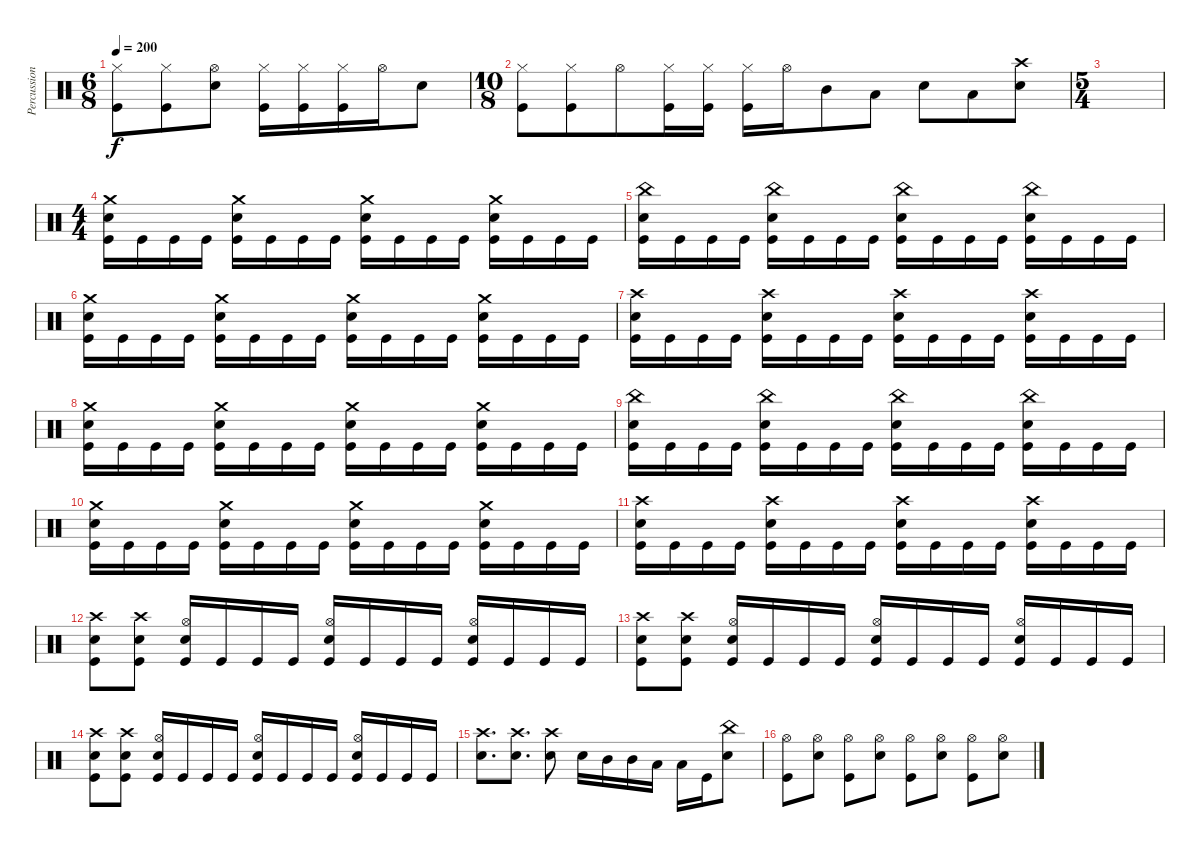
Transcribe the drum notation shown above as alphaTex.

\track ("Percussion" "Percussion") {instrument percussion}
\staff {score}
\articulation defaults
\ts (6 8)
\tempo 200
\clef neutral
\ks c
("Hi-Hat (closed)" "Kick (hit)").8{dy f} ("Hi-Hat (closed)" "Kick (hit)").8 ("Hi-Hat (open)" "Electric Snare (hit)").8 ("Hi-Hat (closed)" "Kick (hit)").16 ("Hi-Hat (closed)" "Kick (hit)").16 ("Hi-Hat (closed)" "Kick (hit)").16 "Hi-Hat (open)".16 "Electric Snare (hit)".8 |
\ts (10 8)
("Hi-Hat (closed)" "Kick (hit)").8 ("Hi-Hat (closed)" "Kick (hit)").8 "Hi-Hat (open)".8 ("Hi-Hat (closed)" "Kick (hit)").16 ("Hi-Hat (closed)" "Kick (hit)").16 ("Hi-Hat (closed)" "Kick (hit)").16 "Hi-Hat (open)".16 "Mid Tom (hit)".8 "Low Tom (hit)".8 "Electric Snare (hit)".8 "Low Tom (hit)".8 ("Crash high (hit)" "Electric Snare (hit)").8 |
\ts (5 4)
|
\ts (4 4)
("Crash medium (hit)" "Electric Snare (hit)" "Kick (hit)").16 "Kick (hit)".16 "Kick (hit)".16 "Kick (hit)".16 ("Crash medium (hit)" "Electric Snare (hit)" "Kick (hit)").16 "Kick (hit)".16 "Kick (hit)".16 "Kick (hit)".16 ("Crash medium (hit)" "Electric Snare (hit)" "Kick (hit)").16 "Kick (hit)".16 "Kick (hit)".16 "Kick (hit)".16 ("Crash medium (hit)" "Electric Snare (hit)" "Kick (hit)").16 "Kick (hit)".16 "Kick (hit)".16 "Kick (hit)".16 |
("China (hit)" "Electric Snare (hit)" "Kick (hit)").16 "Kick (hit)".16 "Kick (hit)".16 "Kick (hit)".16 ("China (hit)" "Electric Snare (hit)" "Kick (hit)").16 "Kick (hit)".16 "Kick (hit)".16 "Kick (hit)".16 ("China (hit)" "Electric Snare (hit)" "Kick (hit)").16 "Kick (hit)".16 "Kick (hit)".16 "Kick (hit)".16 ("China (hit)" "Electric Snare (hit)" "Kick (hit)").16 "Kick (hit)".16 "Kick (hit)".16 "Kick (hit)".16 |
("Crash medium (hit)" "Electric Snare (hit)" "Kick (hit)").16 "Kick (hit)".16 "Kick (hit)".16 "Kick (hit)".16 ("Crash medium (hit)" "Electric Snare (hit)" "Kick (hit)").16 "Kick (hit)".16 "Kick (hit)".16 "Kick (hit)".16 ("Crash medium (hit)" "Electric Snare (hit)" "Kick (hit)").16 "Kick (hit)".16 "Kick (hit)".16 "Kick (hit)".16 ("Crash medium (hit)" "Electric Snare (hit)" "Kick (hit)").16 "Kick (hit)".16 "Kick (hit)".16 "Kick (hit)".16 |
("Crash high (hit)" "Electric Snare (hit)" "Kick (hit)").16 "Kick (hit)".16 "Kick (hit)".16 "Kick (hit)".16 ("Crash high (hit)" "Electric Snare (hit)" "Kick (hit)").16 "Kick (hit)".16 "Kick (hit)".16 "Kick (hit)".16 ("Crash high (hit)" "Electric Snare (hit)" "Kick (hit)").16 "Kick (hit)".16 "Kick (hit)".16 "Kick (hit)".16 ("Crash high (hit)" "Electric Snare (hit)" "Kick (hit)").16 "Kick (hit)".16 "Kick (hit)".16 "Kick (hit)".16 |
("Crash medium (hit)" "Electric Snare (hit)" "Kick (hit)").16 "Kick (hit)".16 "Kick (hit)".16 "Kick (hit)".16 ("Crash medium (hit)" "Electric Snare (hit)" "Kick (hit)").16 "Kick (hit)".16 "Kick (hit)".16 "Kick (hit)".16 ("Crash medium (hit)" "Electric Snare (hit)" "Kick (hit)").16 "Kick (hit)".16 "Kick (hit)".16 "Kick (hit)".16 ("Crash medium (hit)" "Electric Snare (hit)" "Kick (hit)").16 "Kick (hit)".16 "Kick (hit)".16 "Kick (hit)".16 |
("China (hit)" "Electric Snare (hit)" "Kick (hit)").16 "Kick (hit)".16 "Kick (hit)".16 "Kick (hit)".16 ("China (hit)" "Electric Snare (hit)" "Kick (hit)").16 "Kick (hit)".16 "Kick (hit)".16 "Kick (hit)".16 ("China (hit)" "Electric Snare (hit)" "Kick (hit)").16 "Kick (hit)".16 "Kick (hit)".16 "Kick (hit)".16 ("China (hit)" "Electric Snare (hit)" "Kick (hit)").16 "Kick (hit)".16 "Kick (hit)".16 "Kick (hit)".16 |
("Crash medium (hit)" "Electric Snare (hit)" "Kick (hit)").16 "Kick (hit)".16 "Kick (hit)".16 "Kick (hit)".16 ("Crash medium (hit)" "Electric Snare (hit)" "Kick (hit)").16 "Kick (hit)".16 "Kick (hit)".16 "Kick (hit)".16 ("Crash medium (hit)" "Electric Snare (hit)" "Kick (hit)").16 "Kick (hit)".16 "Kick (hit)".16 "Kick (hit)".16 ("Crash medium (hit)" "Electric Snare (hit)" "Kick (hit)").16 "Kick (hit)".16 "Kick (hit)".16 "Kick (hit)".16 |
("Crash high (hit)" "Electric Snare (hit)" "Kick (hit)").16 "Kick (hit)".16 "Kick (hit)".16 "Kick (hit)".16 ("Crash high (hit)" "Electric Snare (hit)" "Kick (hit)").16 "Kick (hit)".16 "Kick (hit)".16 "Kick (hit)".16 ("Crash high (hit)" "Electric Snare (hit)" "Kick (hit)").16 "Kick (hit)".16 "Kick (hit)".16 "Kick (hit)".16 ("Crash high (hit)" "Electric Snare (hit)" "Kick (hit)").16 "Kick (hit)".16 "Kick (hit)".16 "Kick (hit)".16 |
("Crash high (hit)" "Electric Snare (hit)" "Kick (hit)").8 ("Crash high (hit)" "Electric Snare (hit)" "Kick (hit)").8 ("Hi-Hat (open)" "Electric Snare (hit)" "Kick (hit)").16 "Kick (hit)".16 "Kick (hit)".16 "Kick (hit)".16 ("Hi-Hat (open)" "Electric Snare (hit)" "Kick (hit)").16 "Kick (hit)".16 "Kick (hit)".16 "Kick (hit)".16 ("Hi-Hat (open)" "Electric Snare (hit)" "Kick (hit)").16 "Kick (hit)".16 "Kick (hit)".16 "Kick (hit)".16 |
("Crash high (hit)" "Electric Snare (hit)" "Kick (hit)").8 ("Crash high (hit)" "Electric Snare (hit)" "Kick (hit)").8 ("Hi-Hat (open)" "Electric Snare (hit)" "Kick (hit)").16 "Kick (hit)".16 "Kick (hit)".16 "Kick (hit)".16 ("Hi-Hat (open)" "Electric Snare (hit)" "Kick (hit)").16 "Kick (hit)".16 "Kick (hit)".16 "Kick (hit)".16 ("Hi-Hat (open)" "Electric Snare (hit)" "Kick (hit)").16 "Kick (hit)".16 "Kick (hit)".16 "Kick (hit)".16 |
("Crash high (hit)" "Electric Snare (hit)" "Kick (hit)").8 ("Crash high (hit)" "Electric Snare (hit)" "Kick (hit)").8 ("Hi-Hat (open)" "Electric Snare (hit)" "Kick (hit)").16 "Kick (hit)".16 "Kick (hit)".16 "Kick (hit)".16 ("Hi-Hat (open)" "Electric Snare (hit)" "Kick (hit)").16 "Kick (hit)".16 "Kick (hit)".16 "Kick (hit)".16 ("Hi-Hat (open)" "Electric Snare (hit)" "Kick (hit)").16 "Kick (hit)".16 "Kick (hit)".16 "Kick (hit)".16 |
("Crash high (hit)" "Electric Snare (hit)").8{d} ("Crash high (hit)" "Electric Snare (hit)").8{d} ("Crash high (hit)" "Electric Snare (hit)").8 "Electric Snare (hit)".16 "Mid Tom (hit)".16 "Mid Tom (hit)".16 "Low Tom (hit)".16 "Low Tom (hit)".16 "Kick (hit)".16 ("China (hit)" "Electric Snare (hit)").8 |
("Hi-Hat (open)" "Kick (hit)").8 ("Hi-Hat (open)" "Electric Snare (hit)").8 ("Hi-Hat (open)" "Kick (hit)").8 ("Hi-Hat (open)" "Electric Snare (hit)").8 ("Hi-Hat (open)" "Kick (hit)").8 ("Hi-Hat (open)" "Electric Snare (hit)").8 ("Hi-Hat (open)" "Kick (hit)").8 ("Hi-Hat (open)" "Electric Snare (hit)").8
